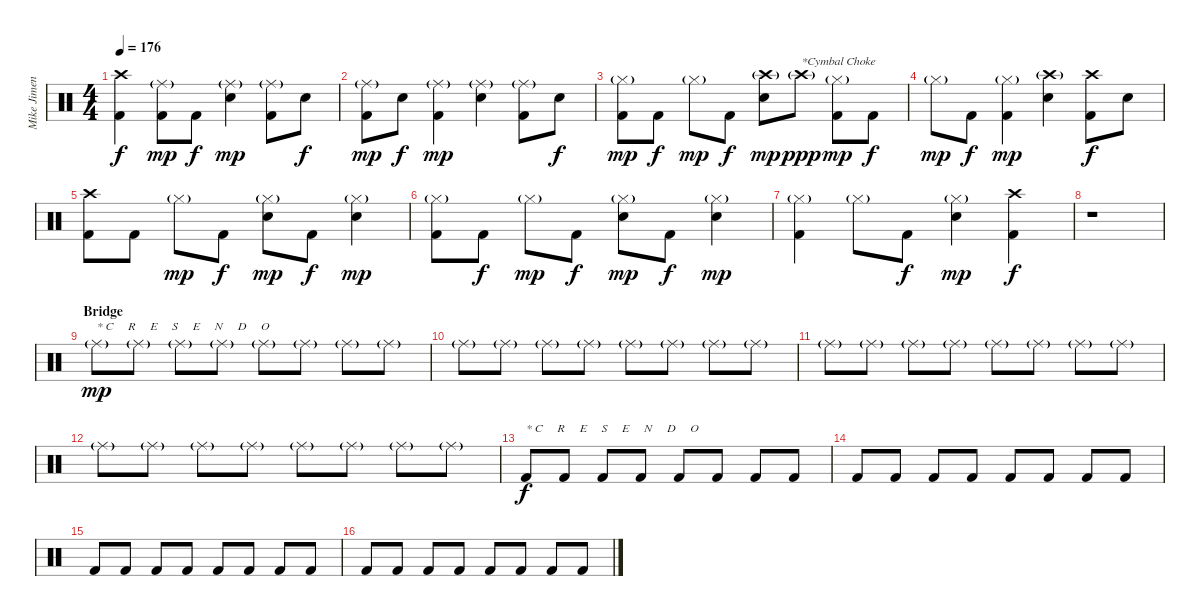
\track ("Mike Jimenez" "Mike Jimen") {instrument percussion}
\staff {score}
\articulation defaults
\ts (4 4)
\tempo 176
\clef neutral
\ks c
("Crash high (hit)" "Kick (hit) 2").4{dy f} ("Ride (middle)"{g} "Kick (hit) 2").8{dy mp} "Kick (hit) 2".8{dy f} ("Ride (middle)"{g} "Electric Snare (hit)").4{dy mp} ("Ride (middle)"{g} "Kick (hit) 2").8 "Electric Snare (hit)".8{dy f} |
("Ride (middle)"{g} "Kick (hit) 2").8{dy mp} "Electric Snare (hit)".8{dy f} ("Ride (middle)"{g} "Kick (hit) 2").4{dy mp} ("Ride (middle)"{g} "Electric Snare (hit)").4 ("Ride (middle)"{g} "Kick (hit) 2").8 "Electric Snare (hit)".8{dy f} |
("Hi-Hat (closed)"{g} "Kick (hit) 2").8{dy mp} "Kick (hit) 2".8{dy f} "Hi-Hat (closed)"{g}.8{dy mp} "Kick (hit) 2".8{dy f} ("Crash high (hit)"{g} "Electric Snare (hit)").8{dy mp} "Crash high (hit)"{g}.8{txt "*Cymbal Choke" dy ppp} ("Hi-Hat (closed)"{g} "Kick (hit) 2").8{dy mp} "Kick (hit) 2".8{dy f} |
"Hi-Hat (closed)"{g}.8{dy mp} "Kick (hit) 2".8{dy f} ("Hi-Hat (closed)"{g} "Kick (hit) 2").4{dy mp} ("Crash high (hit)"{g} "Electric Snare (hit)").4 ("Crash high (hit)" "Kick (hit) 2").8{dy f} "Electric Snare (hit)".8 |
("Crash high (hit)" "Kick (hit) 2").8 "Kick (hit) 2".8 "Hi-Hat (closed)"{g}.8{dy mp} "Kick (hit) 2".8{dy f} ("Hi-Hat (closed)"{g} "Electric Snare (hit)").8{dy mp} "Kick (hit) 2".8{dy f} ("Hi-Hat (closed)"{g} "Electric Snare (hit)").4{dy mp} |
("Hi-Hat (closed)"{g} "Kick (hit) 2").8 "Kick (hit) 2".8{dy f} "Hi-Hat (closed)"{g}.8{dy mp} "Kick (hit) 2".8{dy f} ("Hi-Hat (closed)"{g} "Electric Snare (hit)").8{dy mp} "Kick (hit) 2".8{dy f} ("Hi-Hat (closed)"{g} "Electric Snare (hit)").4{dy mp} |
("Hi-Hat (closed)"{g} "Kick (hit) 2").4 "Hi-Hat (closed)"{g}.8 "Kick (hit) 2".8{dy f} ("Hi-Hat (closed)"{g} "Electric Snare (hit)").4{dy mp} ("Crash high (hit)" "Kick (hit) 2").4{dy f} |
r.1{volume 0} |
\section ("" "Bridge")
"Ride (middle)"{g}.8{txt "* C     R     E     S     E     N     D     O" dy mp volume 16} "Ride (middle)"{g}.8 "Ride (middle)"{g}.8 "Ride (middle)"{g}.8 "Ride (middle)"{g}.8 "Ride (middle)"{g}.8 "Ride (middle)"{g}.8 "Ride (middle)"{g}.8 |
"Ride (middle)"{g}.8 "Ride (middle)"{g}.8 "Ride (middle)"{g}.8 "Ride (middle)"{g}.8 "Ride (middle)"{g}.8 "Ride (middle)"{g}.8 "Ride (middle)"{g}.8 "Ride (middle)"{g}.8 |
"Ride (middle)"{g}.8 "Ride (middle)"{g}.8 "Ride (middle)"{g}.8 "Ride (middle)"{g}.8 "Ride (middle)"{g}.8 "Ride (middle)"{g}.8 "Ride (middle)"{g}.8 "Ride (middle)"{g}.8 |
"Ride (middle)"{g}.8 "Ride (middle)"{g}.8 "Ride (middle)"{g}.8 "Ride (middle)"{g}.8 "Ride (middle)"{g}.8 "Ride (middle)"{g}.8 "Ride (middle)"{g}.8 "Ride (middle)"{g}.8 |
"Kick (hit) 2".8{txt "* C     R     E     S     E     N     D     O" dy f volume 1} "Kick (hit) 2".8 "Kick (hit) 2".8{volume 16} "Kick (hit) 2".8 "Kick (hit) 2".8 "Kick (hit) 2".8 "Kick (hit) 2".8 "Kick (hit) 2".8 |
"Kick (hit) 2".8 "Kick (hit) 2".8 "Kick (hit) 2".8 "Kick (hit) 2".8 "Kick (hit) 2".8 "Kick (hit) 2".8 "Kick (hit) 2".8 "Kick (hit) 2".8 |
"Kick (hit) 2".8 "Kick (hit) 2".8 "Kick (hit) 2".8 "Kick (hit) 2".8 "Kick (hit) 2".8 "Kick (hit) 2".8 "Kick (hit) 2".8 "Kick (hit) 2".8 |
"Kick (hit) 2".8 "Kick (hit) 2".8 "Kick (hit) 2".8 "Kick (hit) 2".8 "Kick (hit) 2".8 "Kick (hit) 2".8 "Kick (hit) 2".8 "Kick (hit) 2".8
